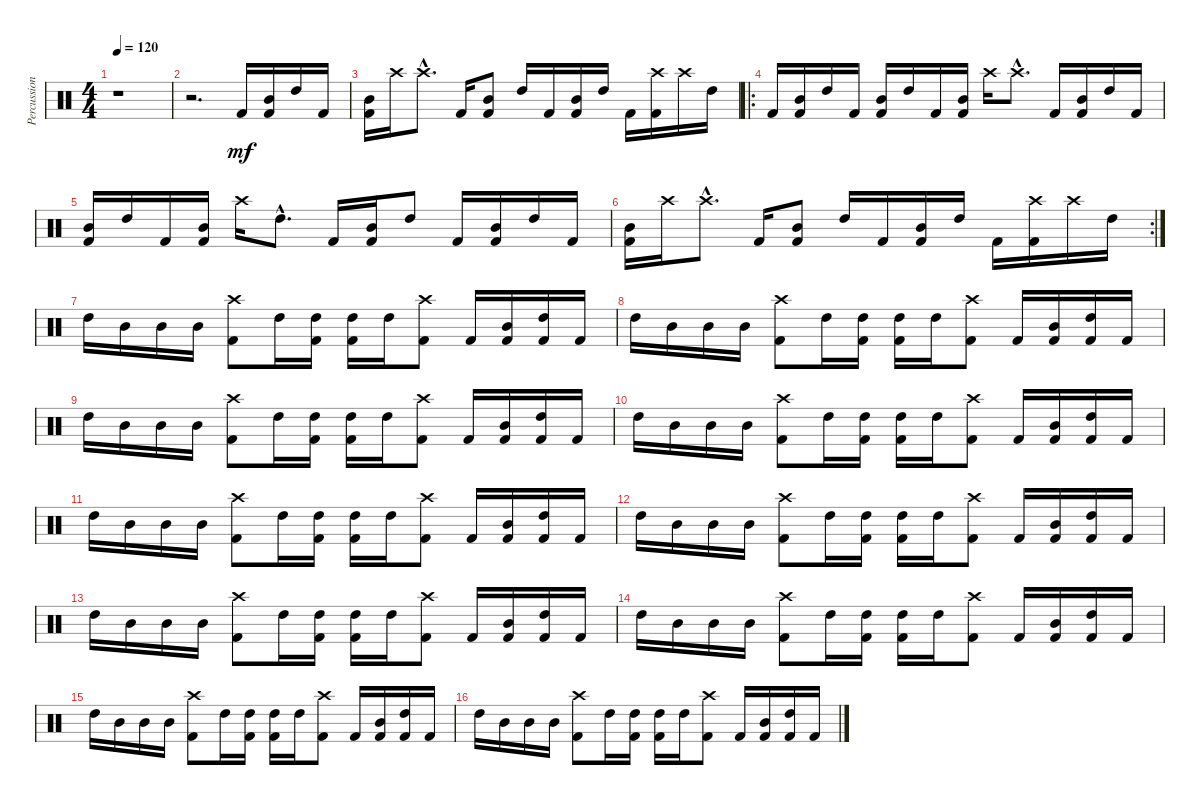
\track ("Percussion" "Percussion") {instrument percussion}
\staff {score}
\articulation defaults
\ts (4 4)
\tempo 120
\clef neutral
\ks c
r.1{dy mf} |
r.2{d} "Kick (hit) 2".16 ("Mid Tom (hit)" "Kick (hit) 2").16 "High Tom (hit)".16 "Kick (hit) 2".16 |
("Mid Tom (hit)" "Kick (hit) 2").16 "Crash high (hit)".16 "Crash high (hit)"{hac}.8{d} "Kick (hit) 2".16 ("Mid Tom (hit)" "Kick (hit) 2").8 "High Tom (hit)".16 "Kick (hit) 2".16 ("Mid Tom (hit)" "Kick (hit) 2").16 "High Tom (hit)".16 "Kick (hit) 2".16 ("Crash high (hit)" "Kick (hit) 2").16 "Crash high (hit)".16 "High Tom (hit)".16 |
\ro "Kick (hit) 2".16
("Mid Tom (hit)" "Kick (hit) 2").16 "High Tom (hit)".16 "Kick (hit) 2".16 ("Mid Tom (hit)" "Kick (hit) 2").16 "High Tom (hit)".16 "Kick (hit) 2".16 ("Mid Tom (hit)" "Kick (hit) 2").16 "Crash high (hit)".16 "Crash high (hit)"{hac}.8{d} "Kick (hit) 2".16 ("Mid Tom (hit)" "Kick (hit) 2").16 "High Tom (hit)".16 "Kick (hit) 2".16 |
("Mid Tom (hit)" "Kick (hit) 2").16 "High Tom (hit)".16 "Kick (hit) 2".16 ("Mid Tom (hit)" "Kick (hit) 2").16 "Crash high (hit)".16 "High Tom (hit)"{hac}.8{d} "Kick (hit) 2".16 ("Mid Tom (hit)" "Kick (hit) 2").16 "High Tom (hit)".8 "Kick (hit) 2".16 ("Mid Tom (hit)" "Kick (hit) 2").16 "High Tom (hit)".16 "Kick (hit) 2".16 |
\rc 2
("Mid Tom (hit)" "Kick (hit) 2").16 "Crash high (hit)".16 "Crash high (hit)"{hac}.8{d} "Kick (hit) 2".16 ("Mid Tom (hit)" "Kick (hit) 2").8 "High Tom (hit)".16 "Kick (hit) 2".16 ("Mid Tom (hit)" "Kick (hit) 2").16 "High Tom (hit)".16 "Kick (hit) 2".16 ("Crash high (hit)" "Kick (hit) 2").16 "Crash high (hit)".16 "High Tom (hit)".16 |
"High Tom (hit)".16 "Mid Tom (hit)".16 "Mid Tom (hit)".16 "Mid Tom (hit)".16 ("Crash high (hit)" "Kick (hit) 2").8 "High Tom (hit)".16 ("High Tom (hit)" "Kick (hit) 2").16 ("High Tom (hit)" "Kick (hit) 2").16 "High Tom (hit)".16 ("Crash high (hit)" "Kick (hit) 2").8 "Kick (hit) 2".16 ("Mid Tom (hit)" "Kick (hit) 2").16 ("High Tom (hit)" "Kick (hit) 2").16 "Kick (hit) 2".16 |
"High Tom (hit)".16 "Mid Tom (hit)".16 "Mid Tom (hit)".16 "Mid Tom (hit)".16 ("Crash high (hit)" "Kick (hit) 2").8 "High Tom (hit)".16 ("High Tom (hit)" "Kick (hit) 2").16 ("High Tom (hit)" "Kick (hit) 2").16 "High Tom (hit)".16 ("Crash high (hit)" "Kick (hit) 2").8 "Kick (hit) 2".16 ("Mid Tom (hit)" "Kick (hit) 2").16 ("High Tom (hit)" "Kick (hit) 2").16 "Kick (hit) 2".16 |
"High Tom (hit)".16 "Mid Tom (hit)".16 "Mid Tom (hit)".16 "Mid Tom (hit)".16 ("Crash high (hit)" "Kick (hit) 2").8 "High Tom (hit)".16 ("High Tom (hit)" "Kick (hit) 2").16 ("High Tom (hit)" "Kick (hit) 2").16 "High Tom (hit)".16 ("Crash high (hit)" "Kick (hit) 2").8 "Kick (hit) 2".16 ("Mid Tom (hit)" "Kick (hit) 2").16 ("High Tom (hit)" "Kick (hit) 2").16 "Kick (hit) 2".16 |
"High Tom (hit)".16 "Mid Tom (hit)".16 "Mid Tom (hit)".16 "Mid Tom (hit)".16 ("Crash high (hit)" "Kick (hit) 2").8 "High Tom (hit)".16 ("High Tom (hit)" "Kick (hit) 2").16 ("High Tom (hit)" "Kick (hit) 2").16 "High Tom (hit)".16 ("Crash high (hit)" "Kick (hit) 2").8 "Kick (hit) 2".16 ("Mid Tom (hit)" "Kick (hit) 2").16 ("High Tom (hit)" "Kick (hit) 2").16 "Kick (hit) 2".16 |
"High Tom (hit)".16 "Mid Tom (hit)".16 "Mid Tom (hit)".16 "Mid Tom (hit)".16 ("Crash high (hit)" "Kick (hit) 2").8 "High Tom (hit)".16 ("High Tom (hit)" "Kick (hit) 2").16 ("High Tom (hit)" "Kick (hit) 2").16 "High Tom (hit)".16 ("Crash high (hit)" "Kick (hit) 2").8 "Kick (hit) 2".16 ("Mid Tom (hit)" "Kick (hit) 2").16 ("High Tom (hit)" "Kick (hit) 2").16 "Kick (hit) 2".16 |
"High Tom (hit)".16 "Mid Tom (hit)".16 "Mid Tom (hit)".16 "Mid Tom (hit)".16 ("Crash high (hit)" "Kick (hit) 2").8 "High Tom (hit)".16 ("High Tom (hit)" "Kick (hit) 2").16 ("High Tom (hit)" "Kick (hit) 2").16 "High Tom (hit)".16 ("Crash high (hit)" "Kick (hit) 2").8 "Kick (hit) 2".16 ("Mid Tom (hit)" "Kick (hit) 2").16 ("High Tom (hit)" "Kick (hit) 2").16 "Kick (hit) 2".16 |
"High Tom (hit)".16 "Mid Tom (hit)".16 "Mid Tom (hit)".16 "Mid Tom (hit)".16 ("Crash high (hit)" "Kick (hit) 2").8 "High Tom (hit)".16 ("High Tom (hit)" "Kick (hit) 2").16 ("High Tom (hit)" "Kick (hit) 2").16 "High Tom (hit)".16 ("Crash high (hit)" "Kick (hit) 2").8 "Kick (hit) 2".16 ("Mid Tom (hit)" "Kick (hit) 2").16 ("High Tom (hit)" "Kick (hit) 2").16 "Kick (hit) 2".16 |
"High Tom (hit)".16 "Mid Tom (hit)".16 "Mid Tom (hit)".16 "Mid Tom (hit)".16 ("Crash high (hit)" "Kick (hit) 2").8 "High Tom (hit)".16 ("High Tom (hit)" "Kick (hit) 2").16 ("High Tom (hit)" "Kick (hit) 2").16 "High Tom (hit)".16 ("Crash high (hit)" "Kick (hit) 2").8 "Kick (hit) 2".16 ("Mid Tom (hit)" "Kick (hit) 2").16 ("High Tom (hit)" "Kick (hit) 2").16 "Kick (hit) 2".16 |
"High Tom (hit)".16 "Mid Tom (hit)".16 "Mid Tom (hit)".16 "Mid Tom (hit)".16 ("Crash high (hit)" "Kick (hit) 2").8 "High Tom (hit)".16 ("High Tom (hit)" "Kick (hit) 2").16 ("High Tom (hit)" "Kick (hit) 2").16 "High Tom (hit)".16 ("Crash high (hit)" "Kick (hit) 2").8 "Kick (hit) 2".16 ("Mid Tom (hit)" "Kick (hit) 2").16 ("High Tom (hit)" "Kick (hit) 2").16 "Kick (hit) 2".16 |
"High Tom (hit)".16 "Mid Tom (hit)".16 "Mid Tom (hit)".16 "Mid Tom (hit)".16 ("Crash high (hit)" "Kick (hit) 2").8 "High Tom (hit)".16 ("High Tom (hit)" "Kick (hit) 2").16 ("High Tom (hit)" "Kick (hit) 2").16 "High Tom (hit)".16 ("Crash high (hit)" "Kick (hit) 2").8 "Kick (hit) 2".16 ("Mid Tom (hit)" "Kick (hit) 2").16 ("High Tom (hit)" "Kick (hit) 2").16 "Kick (hit) 2".16
